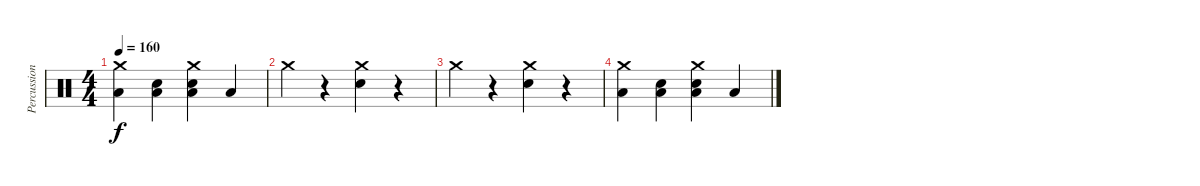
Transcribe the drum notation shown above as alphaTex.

\track ("Percussion" "Percussion") {instrument percussion}
\staff {score}
\articulation defaults
\ts (4 4)
\tempo 160
\clef neutral
\ks c
("Crash medium (hit)" "Low Floor Tom (hit)").4{dy f} ("Low Floor Tom (hit)" "Electric Snare (hit)").4 ("Crash medium (hit)" "Low Floor Tom (hit)" "Electric Snare (hit)").4 "Low Floor Tom (hit)".4 |
"Crash medium (hit)".4 r.4 ("Crash medium (hit)" "Electric Snare (hit)").4 r.4 |
"Crash medium (hit)".4 r.4 ("Crash medium (hit)" "Electric Snare (hit)").4 r.4 |
("Crash medium (hit)" "Low Floor Tom (hit)").4 ("Low Floor Tom (hit)" "Electric Snare (hit)").4 ("Crash medium (hit)" "Low Floor Tom (hit)" "Electric Snare (hit)").4 "Low Floor Tom (hit)".4
